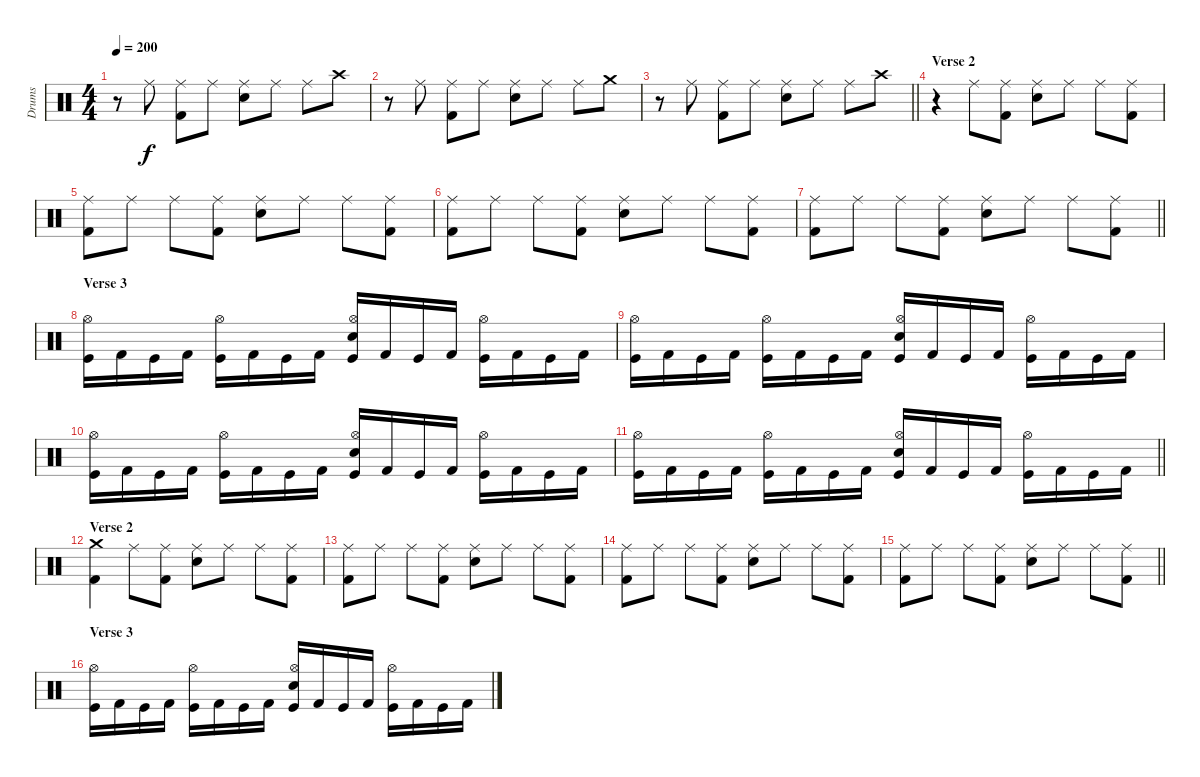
\track ("Drums" "Drums") {instrument percussion}
\staff {score}
\articulation defaults
\ts (4 4)
\tempo 200
\clef neutral
\ks c
r.8{dy f} "Ride (middle)".8 ("Ride (middle)" "Kick (hit) 2").8 "Ride (middle)".8 ("Ride (middle)" "Electric Snare (hit)").8 "Ride (middle)".8 "Ride (middle)".8 "Crash high (hit)".8 |
r.8 "Ride (middle)".8 ("Ride (middle)" "Kick (hit) 2").8 "Ride (middle)".8 ("Ride (middle)" "Electric Snare (hit)").8 "Ride (middle)".8 "Ride (middle)".8 "Crash medium (hit)".8 |
\barLineRight lightlight
r.8 "Ride (middle)".8 ("Ride (middle)" "Kick (hit) 2").8 "Ride (middle)".8 ("Ride (middle)" "Electric Snare (hit)").8 "Ride (middle)".8 "Ride (middle)".8 "Crash high (hit)".8 |
\section ("" "Verse 2")
r.4 "Ride (middle)".8 ("Ride (middle)" "Kick (hit) 2").8 ("Ride (middle)" "Electric Snare (hit)").8 "Ride (middle)".8 "Ride (middle)".8 ("Ride (middle)" "Kick (hit) 2").8 |
("Ride (middle)" "Kick (hit) 2").8 "Ride (middle)".8 "Ride (middle)".8 ("Ride (middle)" "Kick (hit) 2").8 ("Ride (middle)" "Electric Snare (hit)").8 "Ride (middle)".8 "Ride (middle)".8 ("Ride (middle)" "Kick (hit) 2").8 |
("Ride (middle)" "Kick (hit) 2").8 "Ride (middle)".8 "Ride (middle)".8 ("Ride (middle)" "Kick (hit) 2").8 ("Ride (middle)" "Electric Snare (hit)").8 "Ride (middle)".8 "Ride (middle)".8 ("Ride (middle)" "Kick (hit) 2").8 |
\barLineRight lightlight
("Ride (middle)" "Kick (hit) 2").8 "Ride (middle)".8 "Ride (middle)".8 ("Ride (middle)" "Kick (hit) 2").8 ("Ride (middle)" "Electric Snare (hit)").8 "Ride (middle)".8 "Ride (middle)".8 ("Ride (middle)" "Kick (hit) 2").8 |
\section ("" "Verse 3")
("Hi-Hat (open)" "Kick (hit)").16 "Kick (hit) 2".16 "Kick (hit)".16 "Kick (hit) 2".16 ("Hi-Hat (open)" "Kick (hit)").16 "Kick (hit) 2".16 "Kick (hit)".16 "Kick (hit) 2".16 ("Hi-Hat (open)" "Electric Snare (hit)" "Kick (hit)").16 "Kick (hit) 2".16 "Kick (hit)".16 "Kick (hit) 2".16 ("Hi-Hat (open)" "Kick (hit)").16 "Kick (hit) 2".16 "Kick (hit)".16 "Kick (hit) 2".16 |
("Hi-Hat (open)" "Kick (hit)").16 "Kick (hit) 2".16 "Kick (hit)".16 "Kick (hit) 2".16 ("Hi-Hat (open)" "Kick (hit)").16 "Kick (hit) 2".16 "Kick (hit)".16 "Kick (hit) 2".16 ("Hi-Hat (open)" "Electric Snare (hit)" "Kick (hit)").16 "Kick (hit) 2".16 "Kick (hit)".16 "Kick (hit) 2".16 ("Hi-Hat (open)" "Kick (hit)").16 "Kick (hit) 2".16 "Kick (hit)".16 "Kick (hit) 2".16 |
("Hi-Hat (open)" "Kick (hit)").16 "Kick (hit) 2".16 "Kick (hit)".16 "Kick (hit) 2".16 ("Hi-Hat (open)" "Kick (hit)").16 "Kick (hit) 2".16 "Kick (hit)".16 "Kick (hit) 2".16 ("Hi-Hat (open)" "Electric Snare (hit)" "Kick (hit)").16 "Kick (hit) 2".16 "Kick (hit)".16 "Kick (hit) 2".16 ("Hi-Hat (open)" "Kick (hit)").16 "Kick (hit) 2".16 "Kick (hit)".16 "Kick (hit) 2".16 |
\barLineRight lightlight
("Hi-Hat (open)" "Kick (hit)").16 "Kick (hit) 2".16 "Kick (hit)".16 "Kick (hit) 2".16 ("Hi-Hat (open)" "Kick (hit)").16 "Kick (hit) 2".16 "Kick (hit)".16 "Kick (hit) 2".16 ("Hi-Hat (open)" "Electric Snare (hit)" "Kick (hit)").16 "Kick (hit) 2".16 "Kick (hit)".16 "Kick (hit) 2".16 ("Hi-Hat (open)" "Kick (hit)").16 "Kick (hit) 2".16 "Kick (hit)".16 "Kick (hit) 2".16 |
\section ("" "Verse 2")
("Crash medium (hit)" "Kick (hit) 2").4 "Ride (middle)".8 ("Ride (middle)" "Kick (hit) 2").8 ("Ride (middle)" "Electric Snare (hit)").8 "Ride (middle)".8 "Ride (middle)".8 ("Ride (middle)" "Kick (hit) 2").8 |
("Ride (middle)" "Kick (hit) 2").8 "Ride (middle)".8 "Ride (middle)".8 ("Ride (middle)" "Kick (hit) 2").8 ("Ride (middle)" "Electric Snare (hit)").8 "Ride (middle)".8 "Ride (middle)".8 ("Ride (middle)" "Kick (hit) 2").8 |
("Ride (middle)" "Kick (hit) 2").8 "Ride (middle)".8 "Ride (middle)".8 ("Ride (middle)" "Kick (hit) 2").8 ("Ride (middle)" "Electric Snare (hit)").8 "Ride (middle)".8 "Ride (middle)".8 ("Ride (middle)" "Kick (hit) 2").8 |
\barLineRight lightlight
("Ride (middle)" "Kick (hit) 2").8 "Ride (middle)".8 "Ride (middle)".8 ("Ride (middle)" "Kick (hit) 2").8 ("Ride (middle)" "Electric Snare (hit)").8 "Ride (middle)".8 "Ride (middle)".8 ("Ride (middle)" "Kick (hit) 2").8 |
\section ("" "Verse 3")
("Hi-Hat (open)" "Kick (hit)").16 "Kick (hit) 2".16 "Kick (hit)".16 "Kick (hit) 2".16 ("Hi-Hat (open)" "Kick (hit)").16 "Kick (hit) 2".16 "Kick (hit)".16 "Kick (hit) 2".16 ("Hi-Hat (open)" "Electric Snare (hit)" "Kick (hit)").16 "Kick (hit) 2".16 "Kick (hit)".16 "Kick (hit) 2".16 ("Hi-Hat (open)" "Kick (hit)").16 "Kick (hit) 2".16 "Kick (hit)".16 "Kick (hit) 2".16
